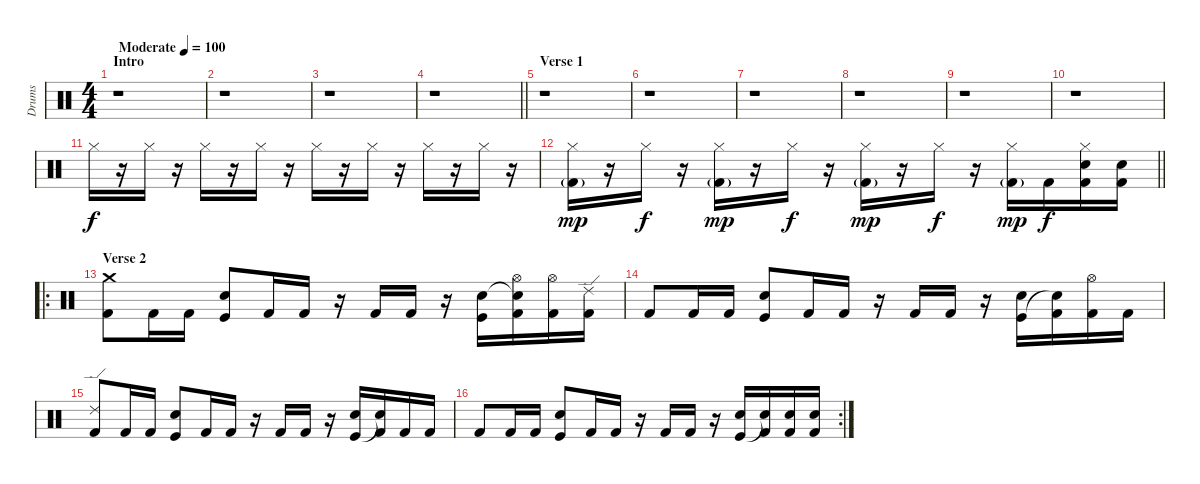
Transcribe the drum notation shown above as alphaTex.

\track ("Drums" "Drums") {instrument percussion}
\staff {score}
\articulation defaults
\ts (4 4)
\section ("" "Intro")
\tempo (100 "Moderate")
\clef neutral
\ks c
r.1{dy f} |
r.1 |
r.1 |
\barLineRight lightlight
r.1 |
\section ("" "Verse 1")
r.1 |
r.1 |
r.1 |
r.1 |
r.1 |
r.1{volume 0} |
"Hi-Hat (closed)".16{volume 16} r.16 "Hi-Hat (closed)".16 r.16 "Hi-Hat (closed)".16 r.16 "Hi-Hat (closed)".16 r.16 "Hi-Hat (closed)".16 r.16 "Hi-Hat (closed)".16 r.16 "Hi-Hat (closed)".16 r.16 "Hi-Hat (closed)".16 r.16 |
\barLineRight lightlight
("Hi-Hat (closed)" "Kick (hit) 2"{g}).16{dy mp} r.16 "Hi-Hat (closed)".16{dy f} r.16 ("Hi-Hat (closed)" "Kick (hit) 2"{g}).16{dy mp} r.16 "Hi-Hat (closed)".16{dy f} r.16 ("Hi-Hat (closed)" "Kick (hit) 2"{g}).16{dy mp} r.16 "Hi-Hat (closed)".16{dy f} r.16 ("Hi-Hat (closed)" "Kick (hit) 2"{g}).16{dy mp} "Kick (hit) 2".16{dy f} ("Hi-Hat (closed)" "Electric Snare (hit)" "Kick (hit) 2").16 ("Electric Snare (hit)" "Kick (hit) 2").16 |
\ro
\section ("" "Verse 2")
("Crash medium (hit)" "Kick (hit) 2").8 "Kick (hit) 2".16 "Kick (hit) 2".16 ("Kick (hit)" "Electric Snare (hit)").8 "Kick (hit) 2".16 "Kick (hit) 2".16 r.16 "Kick (hit) 2".16 "Kick (hit) 2".16 r.16 ("Kick (hit)" "Electric Snare (hit)").16 ("Hi-Hat (open)" "Snare (hit)"{t} "Kick (hit) 2").16 ("Hi-Hat (open)" "Kick (hit) 2").16 ("Ride (edge) 2" "Kick (hit) 2").16 |
"Kick (hit) 2".8 "Kick (hit) 2".16 "Kick (hit) 2".16 ("Kick (hit)" "Electric Snare (hit)").8 "Kick (hit) 2".16 "Kick (hit) 2".16 r.16 "Kick (hit) 2".16 "Kick (hit) 2".16 r.16 ("Kick (hit)" "Electric Snare (hit)").16 ("Snare (hit)"{t} "Kick (hit) 2").16 ("Hi-Hat (open)" "Kick (hit) 2").16 "Kick (hit) 2".16 |
("Ride (edge) 2" "Kick (hit) 2").8 "Kick (hit) 2".16 "Kick (hit) 2".16 ("Kick (hit)" "Electric Snare (hit)").8 "Kick (hit) 2".16 "Kick (hit) 2".16 r.16 "Kick (hit) 2".16 "Kick (hit) 2".16 r.16 ("Kick (hit)" "Electric Snare (hit)").16 ("Snare (hit)"{t} "Kick (hit) 2").16 "Kick (hit) 2".16 "Kick (hit) 2".16 |
\rc 2 "Kick (hit) 2".8 "Kick (hit) 2".16 "Kick (hit) 2".16
("Kick (hit)" "Electric Snare (hit)").8 "Kick (hit) 2".16 "Kick (hit) 2".16 r.16 "Kick (hit) 2".16 "Kick (hit) 2".16 r.16 ("Kick (hit)" "Electric Snare (hit)").16 ("Snare (hit)"{t} "Kick (hit) 2").16 ("Electric Snare (hit)" "Kick (hit) 2").16 ("Electric Snare (hit)" "Kick (hit) 2").16
